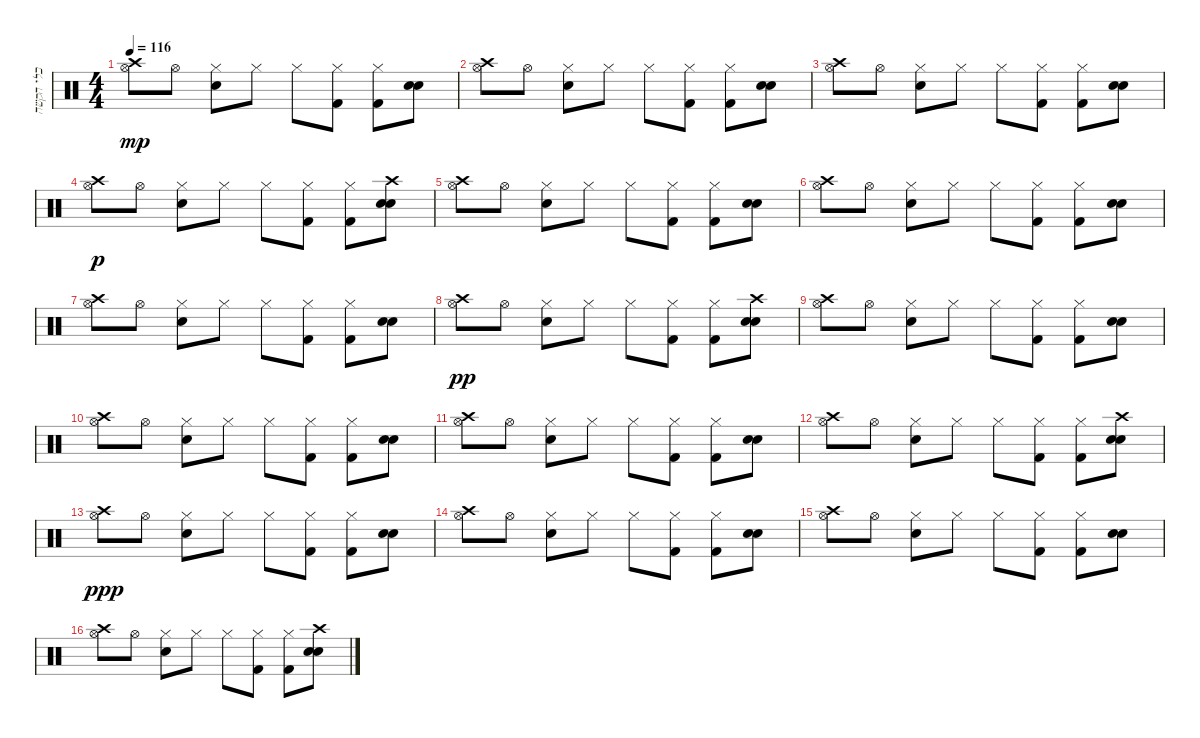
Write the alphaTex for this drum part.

\track ("כלי הקשה" "כלי הקשה") {instrument percussion}
\staff {score}
\articulation defaults
\ts (4 4)
\tempo 116
\clef neutral
\ks c
("Hi-Hat (open)" "Crash high (hit)").8{dy mp} "Hi-Hat (open)".8 ("Hi-Hat (closed)" "Snare (hit) 2").8 "Hi-Hat (closed)".8 "Hi-Hat (closed)".8 ("Hi-Hat (closed)" "Kick (hit) 2").8 ("Hi-Hat (closed)" "Kick (hit) 2").8 ("Electric Snare (hit)" "Snare (hit) 2").8 |
("Hi-Hat (open)" "Crash high (hit)").8 "Hi-Hat (open)".8 ("Hi-Hat (closed)" "Snare (hit) 2").8 "Hi-Hat (closed)".8 "Hi-Hat (closed)".8 ("Hi-Hat (closed)" "Kick (hit) 2").8 ("Hi-Hat (closed)" "Kick (hit) 2").8 ("Electric Snare (hit)" "Snare (hit) 2").8 |
("Hi-Hat (open)" "Crash high (hit)").8 "Hi-Hat (open)".8 ("Hi-Hat (closed)" "Snare (hit) 2").8 "Hi-Hat (closed)".8 "Hi-Hat (closed)".8 ("Hi-Hat (closed)" "Kick (hit) 2").8 ("Hi-Hat (closed)" "Kick (hit) 2").8 ("Electric Snare (hit)" "Snare (hit) 2").8 |
("Hi-Hat (open)" "Crash high (hit)").8{dy p} "Hi-Hat (open)".8 ("Hi-Hat (closed)" "Snare (hit) 2").8 "Hi-Hat (closed)".8 "Hi-Hat (closed)".8 ("Hi-Hat (closed)" "Kick (hit) 2").8 ("Hi-Hat (closed)" "Kick (hit) 2").8 ("Crash high (hit)" "Electric Snare (hit)" "Snare (hit) 2").8 |
("Hi-Hat (open)" "Crash high (hit)").8 "Hi-Hat (open)".8 ("Hi-Hat (closed)" "Snare (hit) 2").8 "Hi-Hat (closed)".8 "Hi-Hat (closed)".8 ("Hi-Hat (closed)" "Kick (hit) 2").8 ("Hi-Hat (closed)" "Kick (hit) 2").8 ("Electric Snare (hit)" "Snare (hit) 2").8 |
("Hi-Hat (open)" "Crash high (hit)").8 "Hi-Hat (open)".8 ("Hi-Hat (closed)" "Snare (hit) 2").8 "Hi-Hat (closed)".8 "Hi-Hat (closed)".8 ("Hi-Hat (closed)" "Kick (hit) 2").8 ("Hi-Hat (closed)" "Kick (hit) 2").8 ("Electric Snare (hit)" "Snare (hit) 2").8 |
("Hi-Hat (open)" "Crash high (hit)").8 "Hi-Hat (open)".8 ("Hi-Hat (closed)" "Snare (hit) 2").8 "Hi-Hat (closed)".8 "Hi-Hat (closed)".8 ("Hi-Hat (closed)" "Kick (hit) 2").8 ("Hi-Hat (closed)" "Kick (hit) 2").8 ("Electric Snare (hit)" "Snare (hit) 2").8 |
("Hi-Hat (open)" "Crash high (hit)").8{dy pp} "Hi-Hat (open)".8 ("Hi-Hat (closed)" "Snare (hit) 2").8 "Hi-Hat (closed)".8 "Hi-Hat (closed)".8 ("Hi-Hat (closed)" "Kick (hit) 2").8 ("Hi-Hat (closed)" "Kick (hit) 2").8 ("Crash high (hit)" "Electric Snare (hit)" "Snare (hit) 2").8 |
("Hi-Hat (open)" "Crash high (hit)").8 "Hi-Hat (open)".8 ("Hi-Hat (closed)" "Snare (hit) 2").8 "Hi-Hat (closed)".8 "Hi-Hat (closed)".8 ("Hi-Hat (closed)" "Kick (hit) 2").8 ("Hi-Hat (closed)" "Kick (hit) 2").8 ("Electric Snare (hit)" "Snare (hit) 2").8 |
("Hi-Hat (open)" "Crash high (hit)").8 "Hi-Hat (open)".8 ("Hi-Hat (closed)" "Snare (hit) 2").8 "Hi-Hat (closed)".8 "Hi-Hat (closed)".8 ("Hi-Hat (closed)" "Kick (hit) 2").8 ("Hi-Hat (closed)" "Kick (hit) 2").8 ("Electric Snare (hit)" "Snare (hit) 2").8 |
("Hi-Hat (open)" "Crash high (hit)").8 "Hi-Hat (open)".8 ("Hi-Hat (closed)" "Snare (hit) 2").8 "Hi-Hat (closed)".8 "Hi-Hat (closed)".8 ("Hi-Hat (closed)" "Kick (hit) 2").8 ("Hi-Hat (closed)" "Kick (hit) 2").8 ("Electric Snare (hit)" "Snare (hit) 2").8 |
("Hi-Hat (open)" "Crash high (hit)").8 "Hi-Hat (open)".8 ("Hi-Hat (closed)" "Snare (hit) 2").8 "Hi-Hat (closed)".8 "Hi-Hat (closed)".8 ("Hi-Hat (closed)" "Kick (hit) 2").8 ("Hi-Hat (closed)" "Kick (hit) 2").8 ("Crash high (hit)" "Electric Snare (hit)" "Snare (hit) 2").8 |
("Hi-Hat (open)" "Crash high (hit)").8{dy ppp} "Hi-Hat (open)".8 ("Hi-Hat (closed)" "Snare (hit) 2").8 "Hi-Hat (closed)".8 "Hi-Hat (closed)".8 ("Hi-Hat (closed)" "Kick (hit) 2").8 ("Hi-Hat (closed)" "Kick (hit) 2").8 ("Electric Snare (hit)" "Snare (hit) 2").8 |
("Hi-Hat (open)" "Crash high (hit)").8 "Hi-Hat (open)".8 ("Hi-Hat (closed)" "Snare (hit) 2").8 "Hi-Hat (closed)".8 "Hi-Hat (closed)".8 ("Hi-Hat (closed)" "Kick (hit) 2").8 ("Hi-Hat (closed)" "Kick (hit) 2").8 ("Electric Snare (hit)" "Snare (hit) 2").8 |
("Hi-Hat (open)" "Crash high (hit)").8 "Hi-Hat (open)".8 ("Hi-Hat (closed)" "Snare (hit) 2").8 "Hi-Hat (closed)".8 "Hi-Hat (closed)".8 ("Hi-Hat (closed)" "Kick (hit) 2").8 ("Hi-Hat (closed)" "Kick (hit) 2").8 ("Electric Snare (hit)" "Snare (hit) 2").8 |
("Hi-Hat (open)" "Crash high (hit)").8 "Hi-Hat (open)".8 ("Hi-Hat (closed)" "Snare (hit) 2").8 "Hi-Hat (closed)".8 "Hi-Hat (closed)".8 ("Hi-Hat (closed)" "Kick (hit) 2").8 ("Hi-Hat (closed)" "Kick (hit) 2").8 ("Crash high (hit)" "Electric Snare (hit)" "Snare (hit) 2").8
